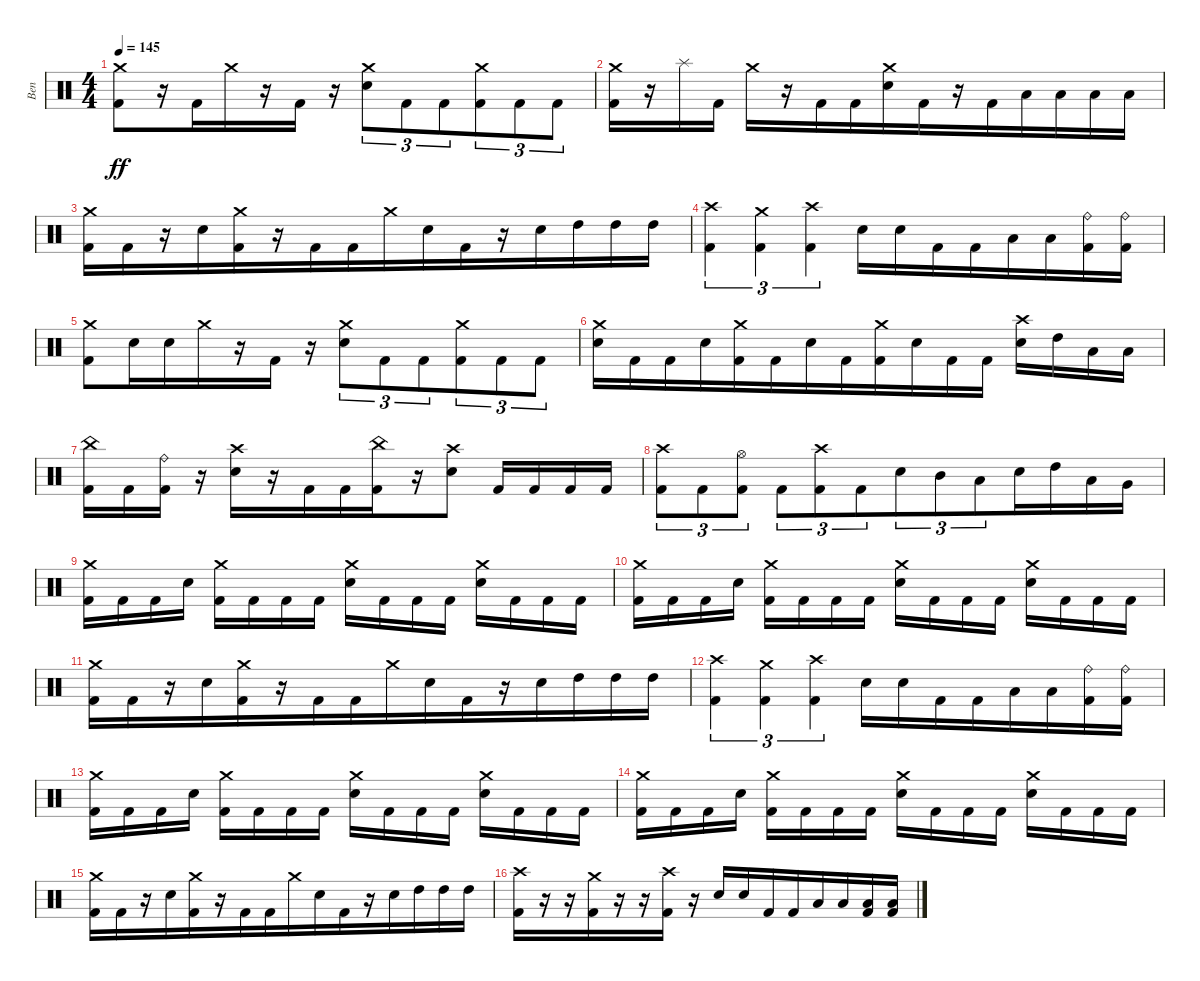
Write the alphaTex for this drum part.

\track ("Ben" "Ben") {instrument percussion}
\staff {score}
\articulation defaults
\ts (4 4)
\tempo 145
\clef neutral
\ks c
("Crash medium (hit)" "Kick (hit) 2").8{dy ff} r.16 "Kick (hit) 2".16{beam merge} "Crash medium (hit)".16 r.16 "Kick (hit) 2".16 r.16{beam merge} ("Crash medium (hit)" "Electric Snare (hit)").8{tu (3 2)} "Kick (hit) 2".8{tu (3 2)} "Kick (hit) 2".8{tu (3 2) beam merge} ("Crash medium (hit)" "Kick (hit) 2").8{tu (3 2) beam merge} "Kick (hit) 2".8{tu (3 2)} "Kick (hit) 2".8{tu (3 2)} |
("Crash medium (hit)" "Kick (hit) 2").16{beam merge} r.16 "Splash (hit)".16 "Kick (hit) 2".16 "Crash medium (hit)".16{beam merge} r.16 "Kick (hit) 2".16 "Kick (hit) 2".16{beam merge} ("Crash medium (hit)" "Electric Snare (hit)").16 "Kick (hit) 2".16 r.16 "Kick (hit) 2".16{beam merge} "Low Tom (hit)".16{beam merge} "Low Tom (hit)".16 "Low Tom (hit)".16 "Low Tom (hit)".16 |
("Kick (hit) 2" "Crash medium (hit)").16 "Kick (hit) 2".16 r.16{beam merge} "Electric Snare (hit)".16{beam merge} ("Kick (hit) 2" "Crash medium (hit)").16 r.16 "Kick (hit) 2".16 "Kick (hit) 2".16{beam merge} "Crash medium (hit)".16{beam merge} "Electric Snare (hit)".16 "Kick (hit) 2".16{beam merge} r.16 "Electric Snare (hit)".16{beam merge} "High Tom (hit)".16 "High Tom (hit)".16{beam merge} "High Tom (hit)".16 |
("Crash high (hit)" "Kick (hit) 2").4{tu (3 2)} ("Crash medium (hit)" "Kick (hit) 2").4{tu (3 2)} ("Crash high (hit)" "Kick (hit) 2").4{tu (3 2)} "Electric Snare (hit)".16 "Electric Snare (hit)".16{beam merge} "Kick (hit) 2".16{beam merge} "Kick (hit) 2".16{beam merge} "Low Tom (hit)".16 "Low Tom (hit)".16{beam merge} ("Ride (bell)" "Kick (hit) 2").16 ("Ride (bell)" "Kick (hit) 2").16 |
("Crash medium (hit)" "Kick (hit) 2").8 "Electric Snare (hit)".16 "Electric Snare (hit)".16{beam merge} "Crash medium (hit)".16 r.16 "Kick (hit) 2".16 r.16{beam merge} ("Crash medium (hit)" "Electric Snare (hit)").8{tu (3 2)} "Kick (hit) 2".8{tu (3 2)} "Kick (hit) 2".8{tu (3 2) beam merge} ("Crash medium (hit)" "Kick (hit) 2").8{tu (3 2) beam merge} "Kick (hit) 2".8{tu (3 2)} "Kick (hit) 2".8{tu (3 2)} |
("Electric Snare (hit)" "Crash medium (hit)").16 "Kick (hit) 2".16 "Kick (hit) 2".16{beam merge} "Electric Snare (hit)".16{beam merge} ("Kick (hit) 2" "Crash medium (hit)").16 "Kick (hit) 2".16 "Electric Snare (hit)".16 "Kick (hit) 2".16{beam merge} ("Kick (hit) 2" "Crash medium (hit)").16{beam merge} "Electric Snare (hit)".16 "Kick (hit) 2".16{beam merge} "Kick (hit) 2".16 ("Electric Snare (hit)" "Crash high (hit)").16{beam merge} "High Tom (hit)".16 "Low Tom (hit)".16{beam merge} "Low Tom (hit)".16 |
("China (hit)" "Kick (hit) 2").16 "Kick (hit) 2".16{beam merge} ("Ride (bell)" "Kick (hit) 2").16 r.16{beam merge} ("Crash high (hit)" "Electric Snare (hit)").16 r.16{beam merge} "Kick (hit) 2".16 "Kick (hit) 2".16{beam merge} ("China (hit)" "Kick (hit) 2").16 r.16 ("Crash high (hit)" "Electric Snare (hit)").8 "Kick (hit) 2".16{beam merge} "Kick (hit) 2".16 "Kick (hit) 2".16{beam merge} "Kick (hit) 2".16 |
("Kick (hit) 2" "Crash high (hit)").8{tu (3 2)} "Kick (hit) 2".8{tu (3 2)} ("Kick (hit) 2" "Hi-Hat (open)").8{tu (3 2)} "Kick (hit) 2".8{tu (3 2)} ("Kick (hit) 2" "Crash high (hit)").8{tu (3 2) beam merge} "Kick (hit) 2".8{tu (3 2) beam merge} "Electric Snare (hit)".8{tu (3 2) beam merge} "Mid Tom (hit)".8{tu (3 2)} "Low Tom (hit)".8{tu (3 2) beam merge} "Electric Snare (hit)".16 "High Tom (hit)".16{beam merge} "Low Tom (hit)".16 "Very Low Tom (hit)".16 |
("Crash medium (hit)" "Kick (hit) 2").16{beam merge} "Kick (hit) 2".16{beam merge} "Kick (hit) 2".16{beam merge} "Electric Snare (hit)".16 ("Crash medium (hit)" "Kick (hit) 2").16{beam merge} "Kick (hit) 2".16{beam merge} "Kick (hit) 2".16 "Kick (hit) 2".16 ("Crash medium (hit)" "Electric Snare (hit)").16{beam merge} "Kick (hit) 2".16{beam merge} "Kick (hit) 2".16 "Kick (hit) 2".16 ("Crash medium (hit)" "Electric Snare (hit)").16{beam merge} "Kick (hit) 2".16 "Kick (hit) 2".16 "Kick (hit) 2".16 |
("Crash medium (hit)" "Kick (hit) 2").16{beam merge} "Kick (hit) 2".16{beam merge} "Kick (hit) 2".16{beam merge} "Electric Snare (hit)".16 ("Crash medium (hit)" "Kick (hit) 2").16{beam merge} "Kick (hit) 2".16{beam merge} "Kick (hit) 2".16 "Kick (hit) 2".16 ("Crash medium (hit)" "Electric Snare (hit)").16{beam merge} "Kick (hit) 2".16{beam merge} "Kick (hit) 2".16 "Kick (hit) 2".16 ("Crash medium (hit)" "Electric Snare (hit)").16{beam merge} "Kick (hit) 2".16 "Kick (hit) 2".16 "Kick (hit) 2".16 |
("Kick (hit) 2" "Crash medium (hit)").16 "Kick (hit) 2".16 r.16{beam merge} "Electric Snare (hit)".16{beam merge} ("Kick (hit) 2" "Crash medium (hit)").16 r.16 "Kick (hit) 2".16 "Kick (hit) 2".16{beam merge} "Crash medium (hit)".16{beam merge} "Electric Snare (hit)".16 "Kick (hit) 2".16{beam merge} r.16 "Electric Snare (hit)".16{beam merge} "High Tom (hit)".16 "High Tom (hit)".16{beam merge} "High Tom (hit)".16 |
("Crash high (hit)" "Kick (hit) 2").4{tu (3 2)} ("Crash medium (hit)" "Kick (hit) 2").4{tu (3 2)} ("Crash high (hit)" "Kick (hit) 2").4{tu (3 2)} "Electric Snare (hit)".16 "Electric Snare (hit)".16{beam merge} "Kick (hit) 2".16{beam merge} "Kick (hit) 2".16{beam merge} "Low Tom (hit)".16 "Low Tom (hit)".16{beam merge} ("Ride (bell)" "Kick (hit) 2").16 ("Ride (bell)" "Kick (hit) 2").16 |
("Crash medium (hit)" "Kick (hit) 2").16{beam merge} "Kick (hit) 2".16{beam merge} "Kick (hit) 2".16{beam merge} "Electric Snare (hit)".16 ("Crash medium (hit)" "Kick (hit) 2").16{beam merge} "Kick (hit) 2".16{beam merge} "Kick (hit) 2".16 "Kick (hit) 2".16 ("Crash medium (hit)" "Electric Snare (hit)").16{beam merge} "Kick (hit) 2".16{beam merge} "Kick (hit) 2".16 "Kick (hit) 2".16 ("Crash medium (hit)" "Electric Snare (hit)").16{beam merge} "Kick (hit) 2".16 "Kick (hit) 2".16 "Kick (hit) 2".16 |
("Crash medium (hit)" "Kick (hit) 2").16{beam merge} "Kick (hit) 2".16{beam merge} "Kick (hit) 2".16{beam merge} "Electric Snare (hit)".16 ("Crash medium (hit)" "Kick (hit) 2").16{beam merge} "Kick (hit) 2".16{beam merge} "Kick (hit) 2".16 "Kick (hit) 2".16 ("Crash medium (hit)" "Electric Snare (hit)").16{beam merge} "Kick (hit) 2".16{beam merge} "Kick (hit) 2".16 "Kick (hit) 2".16 ("Crash medium (hit)" "Electric Snare (hit)").16{beam merge} "Kick (hit) 2".16 "Kick (hit) 2".16 "Kick (hit) 2".16 |
("Kick (hit) 2" "Crash medium (hit)").16 "Kick (hit) 2".16 r.16{beam merge} "Electric Snare (hit)".16{beam merge} ("Kick (hit) 2" "Crash medium (hit)").16 r.16 "Kick (hit) 2".16 "Kick (hit) 2".16{beam merge} "Crash medium (hit)".16{beam merge} "Electric Snare (hit)".16 "Kick (hit) 2".16{beam merge} r.16 "Electric Snare (hit)".16{beam merge} "High Tom (hit)".16 "High Tom (hit)".16{beam merge} "High Tom (hit)".16 |
("Crash high (hit)" "Kick (hit) 2").16{beam merge} r.16 r.16 ("Crash medium (hit)" "Kick (hit) 2").16{beam merge} r.16{beam merge} r.16 ("Crash high (hit)" "Kick (hit) 2").16 r.16 "Electric Snare (hit)".16 "Electric Snare (hit)".16{beam merge} "Kick (hit) 2".16{beam merge} "Kick (hit) 2".16{beam merge} "Low Tom (hit)".16 "Low Tom (hit)".16{beam merge} ("Low Floor Tom (hit)" "Kick (hit) 2").16 ("Low Floor Tom (hit)" "Kick (hit) 2").16
